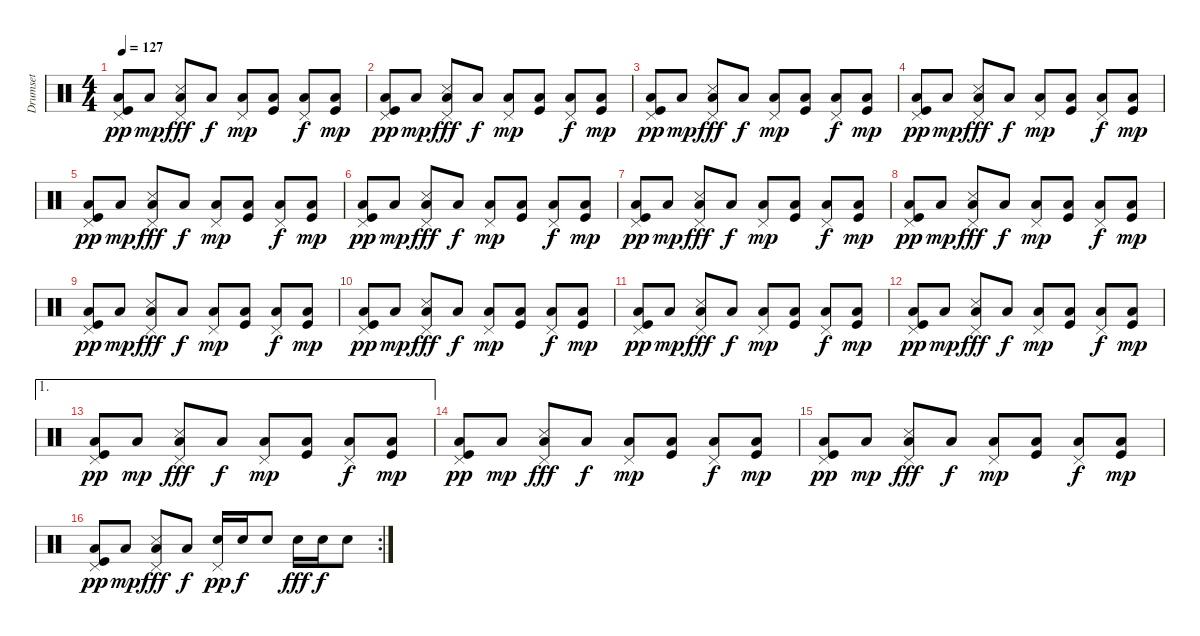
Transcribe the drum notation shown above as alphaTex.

\track ("Drumset" "Drumset") {instrument percussion}
\staff {score}
\articulation defaults
\ts (4 4)
\tempo 127
\clef neutral
\ks c
("Pedal Hi-Hat (hit)" "Low Floor Tom (hit)" "Kick (hit)").8{dy pp} "Low Floor Tom (hit)".8{dy mp} ("Pedal Hi-Hat (hit)" "Snare (side stick) 3" "Low Floor Tom (hit)").8{dy fff} "Low Floor Tom (hit)".8{dy f} ("Pedal Hi-Hat (hit)" "Low Floor Tom (hit)").8{dy mp} ("Low Floor Tom (hit)" "Kick (hit)").8 ("Pedal Hi-Hat (hit)" "Low Floor Tom (hit)").8{dy f} ("Low Floor Tom (hit)" "Kick (hit)").8{dy mp} |
("Pedal Hi-Hat (hit)" "Low Floor Tom (hit)" "Kick (hit)").8{dy pp} "Low Floor Tom (hit)".8{dy mp} ("Pedal Hi-Hat (hit)" "Snare (side stick) 3" "Low Floor Tom (hit)").8{dy fff} "Low Floor Tom (hit)".8{dy f} ("Pedal Hi-Hat (hit)" "Low Floor Tom (hit)").8{dy mp} ("Low Floor Tom (hit)" "Kick (hit)").8 ("Pedal Hi-Hat (hit)" "Low Floor Tom (hit)").8{dy f} ("Low Floor Tom (hit)" "Kick (hit)").8{dy mp} |
("Pedal Hi-Hat (hit)" "Low Floor Tom (hit)" "Kick (hit)").8{dy pp} "Low Floor Tom (hit)".8{dy mp} ("Pedal Hi-Hat (hit)" "Snare (side stick) 3" "Low Floor Tom (hit)").8{dy fff} "Low Floor Tom (hit)".8{dy f} ("Pedal Hi-Hat (hit)" "Low Floor Tom (hit)").8{dy mp} ("Low Floor Tom (hit)" "Kick (hit)").8 ("Pedal Hi-Hat (hit)" "Low Floor Tom (hit)").8{dy f} ("Low Floor Tom (hit)" "Kick (hit)").8{dy mp} |
("Pedal Hi-Hat (hit)" "Low Floor Tom (hit)" "Kick (hit)").8{dy pp} "Low Floor Tom (hit)".8{dy mp} ("Pedal Hi-Hat (hit)" "Snare (side stick) 3" "Low Floor Tom (hit)").8{dy fff} "Low Floor Tom (hit)".8{dy f} ("Pedal Hi-Hat (hit)" "Low Floor Tom (hit)").8{dy mp} ("Low Floor Tom (hit)" "Kick (hit)").8 ("Pedal Hi-Hat (hit)" "Low Floor Tom (hit)").8{dy f} ("Low Floor Tom (hit)" "Kick (hit)").8{dy mp} |
("Pedal Hi-Hat (hit)" "Low Floor Tom (hit)" "Kick (hit)").8{dy pp} "Low Floor Tom (hit)".8{dy mp} ("Pedal Hi-Hat (hit)" "Snare (side stick) 3" "Low Floor Tom (hit)").8{dy fff} "Low Floor Tom (hit)".8{dy f} ("Pedal Hi-Hat (hit)" "Low Floor Tom (hit)").8{dy mp} ("Low Floor Tom (hit)" "Kick (hit)").8 ("Pedal Hi-Hat (hit)" "Low Floor Tom (hit)").8{dy f} ("Low Floor Tom (hit)" "Kick (hit)").8{dy mp} |
("Pedal Hi-Hat (hit)" "Low Floor Tom (hit)" "Kick (hit)").8{dy pp} "Low Floor Tom (hit)".8{dy mp} ("Pedal Hi-Hat (hit)" "Snare (side stick) 3" "Low Floor Tom (hit)").8{dy fff} "Low Floor Tom (hit)".8{dy f} ("Pedal Hi-Hat (hit)" "Low Floor Tom (hit)").8{dy mp} ("Low Floor Tom (hit)" "Kick (hit)").8 ("Pedal Hi-Hat (hit)" "Low Floor Tom (hit)").8{dy f} ("Low Floor Tom (hit)" "Kick (hit)").8{dy mp} |
("Pedal Hi-Hat (hit)" "Low Floor Tom (hit)" "Kick (hit)").8{dy pp} "Low Floor Tom (hit)".8{dy mp} ("Pedal Hi-Hat (hit)" "Snare (side stick) 3" "Low Floor Tom (hit)").8{dy fff} "Low Floor Tom (hit)".8{dy f} ("Pedal Hi-Hat (hit)" "Low Floor Tom (hit)").8{dy mp} ("Low Floor Tom (hit)" "Kick (hit)").8 ("Pedal Hi-Hat (hit)" "Low Floor Tom (hit)").8{dy f} ("Low Floor Tom (hit)" "Kick (hit)").8{dy mp} |
("Pedal Hi-Hat (hit)" "Low Floor Tom (hit)" "Kick (hit)").8{dy pp} "Low Floor Tom (hit)".8{dy mp} ("Pedal Hi-Hat (hit)" "Snare (side stick) 3" "Low Floor Tom (hit)").8{dy fff} "Low Floor Tom (hit)".8{dy f} ("Pedal Hi-Hat (hit)" "Low Floor Tom (hit)").8{dy mp} ("Low Floor Tom (hit)" "Kick (hit)").8 ("Pedal Hi-Hat (hit)" "Low Floor Tom (hit)").8{dy f} ("Low Floor Tom (hit)" "Kick (hit)").8{dy mp} |
("Pedal Hi-Hat (hit)" "Low Floor Tom (hit)" "Kick (hit)").8{dy pp} "Low Floor Tom (hit)".8{dy mp} ("Pedal Hi-Hat (hit)" "Snare (side stick) 3" "Low Floor Tom (hit)").8{dy fff} "Low Floor Tom (hit)".8{dy f} ("Pedal Hi-Hat (hit)" "Low Floor Tom (hit)").8{dy mp} ("Low Floor Tom (hit)" "Kick (hit)").8 ("Pedal Hi-Hat (hit)" "Low Floor Tom (hit)").8{dy f} ("Low Floor Tom (hit)" "Kick (hit)").8{dy mp} |
("Pedal Hi-Hat (hit)" "Low Floor Tom (hit)" "Kick (hit)").8{dy pp} "Low Floor Tom (hit)".8{dy mp} ("Pedal Hi-Hat (hit)" "Snare (side stick) 3" "Low Floor Tom (hit)").8{dy fff} "Low Floor Tom (hit)".8{dy f} ("Pedal Hi-Hat (hit)" "Low Floor Tom (hit)").8{dy mp} ("Low Floor Tom (hit)" "Kick (hit)").8 ("Pedal Hi-Hat (hit)" "Low Floor Tom (hit)").8{dy f} ("Low Floor Tom (hit)" "Kick (hit)").8{dy mp} |
("Pedal Hi-Hat (hit)" "Low Floor Tom (hit)" "Kick (hit)").8{dy pp} "Low Floor Tom (hit)".8{dy mp} ("Pedal Hi-Hat (hit)" "Snare (side stick) 3" "Low Floor Tom (hit)").8{dy fff} "Low Floor Tom (hit)".8{dy f} ("Pedal Hi-Hat (hit)" "Low Floor Tom (hit)").8{dy mp} ("Low Floor Tom (hit)" "Kick (hit)").8 ("Pedal Hi-Hat (hit)" "Low Floor Tom (hit)").8{dy f} ("Low Floor Tom (hit)" "Kick (hit)").8{dy mp} |
("Pedal Hi-Hat (hit)" "Low Floor Tom (hit)" "Kick (hit)").8{dy pp} "Low Floor Tom (hit)".8{dy mp} ("Pedal Hi-Hat (hit)" "Snare (side stick) 3" "Low Floor Tom (hit)").8{dy fff} "Low Floor Tom (hit)".8{dy f} ("Pedal Hi-Hat (hit)" "Low Floor Tom (hit)").8{dy mp} ("Low Floor Tom (hit)" "Kick (hit)").8 ("Pedal Hi-Hat (hit)" "Low Floor Tom (hit)").8{dy f} ("Low Floor Tom (hit)" "Kick (hit)").8{dy mp} |
\ae 1
("Pedal Hi-Hat (hit)" "Low Floor Tom (hit)" "Kick (hit)").8{dy pp} "Low Floor Tom (hit)".8{dy mp} ("Pedal Hi-Hat (hit)" "Snare (side stick) 3" "Low Floor Tom (hit)").8{dy fff} "Low Floor Tom (hit)".8{dy f} ("Pedal Hi-Hat (hit)" "Low Floor Tom (hit)").8{dy mp} ("Low Floor Tom (hit)" "Kick (hit)").8 ("Pedal Hi-Hat (hit)" "Low Floor Tom (hit)").8{dy f} ("Low Floor Tom (hit)" "Kick (hit)").8{dy mp} |
("Pedal Hi-Hat (hit)" "Low Floor Tom (hit)" "Kick (hit)").8{dy pp} "Low Floor Tom (hit)".8{dy mp} ("Pedal Hi-Hat (hit)" "Snare (side stick) 3" "Low Floor Tom (hit)").8{dy fff} "Low Floor Tom (hit)".8{dy f} ("Pedal Hi-Hat (hit)" "Low Floor Tom (hit)").8{dy mp} ("Low Floor Tom (hit)" "Kick (hit)").8 ("Pedal Hi-Hat (hit)" "Low Floor Tom (hit)").8{dy f} ("Low Floor Tom (hit)" "Kick (hit)").8{dy mp} |
("Pedal Hi-Hat (hit)" "Low Floor Tom (hit)" "Kick (hit)").8{dy pp} "Low Floor Tom (hit)".8{dy mp} ("Pedal Hi-Hat (hit)" "Snare (side stick) 3" "Low Floor Tom (hit)").8{dy fff} "Low Floor Tom (hit)".8{dy f} ("Pedal Hi-Hat (hit)" "Low Floor Tom (hit)").8{dy mp} ("Low Floor Tom (hit)" "Kick (hit)").8 ("Pedal Hi-Hat (hit)" "Low Floor Tom (hit)").8{dy f} ("Low Floor Tom (hit)" "Kick (hit)").8{dy mp} |
\rc 2
("Pedal Hi-Hat (hit)" "Low Floor Tom (hit)" "Kick (hit)").8{dy pp} "Low Floor Tom (hit)".8{dy mp} ("Pedal Hi-Hat (hit)" "Snare (side stick) 3" "Low Floor Tom (hit)").8{dy fff} "Low Floor Tom (hit)".8{dy f} ("Pedal Hi-Hat (hit)" "Electric Snare (hit)").16{dy pp} "Electric Snare (hit)".16{dy f} "Electric Snare (hit)".8 "Electric Snare (hit)".16{dy fff} "Electric Snare (hit)".16{dy f} "Electric Snare (hit)".8
